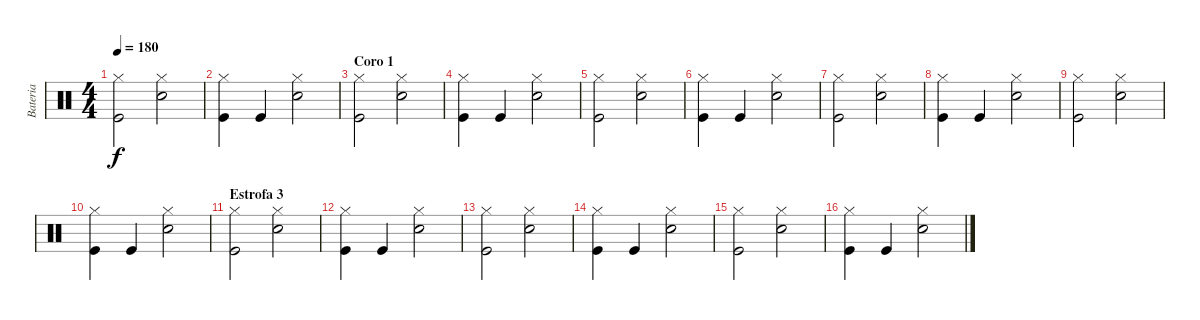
\track ("Bateria" "Bateria") {instrument percussion}
\staff {score}
\articulation defaults
\ts (4 4)
\tempo 180
\clef neutral
\ks c
("Hi-Hat (closed)" "Kick (hit)").2{dy f} ("Hi-Hat (closed)" "Snare (hit) 2").2 |
("Hi-Hat (closed)" "Kick (hit)").4 "Kick (hit)".4 ("Hi-Hat (closed)" "Snare (hit) 2").2 |
\section ("" "Coro 1")
("Hi-Hat (closed)" "Kick (hit)").2 ("Hi-Hat (closed)" "Snare (hit) 2").2 |
("Hi-Hat (closed)" "Kick (hit)").4 "Kick (hit)".4 ("Hi-Hat (closed)" "Snare (hit) 2").2 |
("Hi-Hat (closed)" "Kick (hit)").2 ("Hi-Hat (closed)" "Snare (hit) 2").2 |
("Hi-Hat (closed)" "Kick (hit)").4 "Kick (hit)".4 ("Hi-Hat (closed)" "Snare (hit) 2").2 |
("Hi-Hat (closed)" "Kick (hit)").2 ("Hi-Hat (closed)" "Snare (hit) 2").2 |
("Hi-Hat (closed)" "Kick (hit)").4 "Kick (hit)".4 ("Hi-Hat (closed)" "Snare (hit) 2").2 |
("Hi-Hat (closed)" "Kick (hit)").2 ("Hi-Hat (closed)" "Snare (hit) 2").2 |
("Hi-Hat (closed)" "Kick (hit)").4 "Kick (hit)".4 ("Hi-Hat (closed)" "Snare (hit) 2").2 |
\section ("" "Estrofa 3")
("Hi-Hat (closed)" "Kick (hit)").2 ("Hi-Hat (closed)" "Snare (hit) 2").2 |
("Hi-Hat (closed)" "Kick (hit)").4 "Kick (hit)".4 ("Hi-Hat (closed)" "Snare (hit) 2").2 |
("Hi-Hat (closed)" "Kick (hit)").2 ("Hi-Hat (closed)" "Snare (hit) 2").2 |
("Hi-Hat (closed)" "Kick (hit)").4 "Kick (hit)".4 ("Hi-Hat (closed)" "Snare (hit) 2").2 |
("Hi-Hat (closed)" "Kick (hit)").2 ("Hi-Hat (closed)" "Snare (hit) 2").2 |
("Hi-Hat (closed)" "Kick (hit)").4 "Kick (hit)".4 ("Hi-Hat (closed)" "Snare (hit) 2").2
